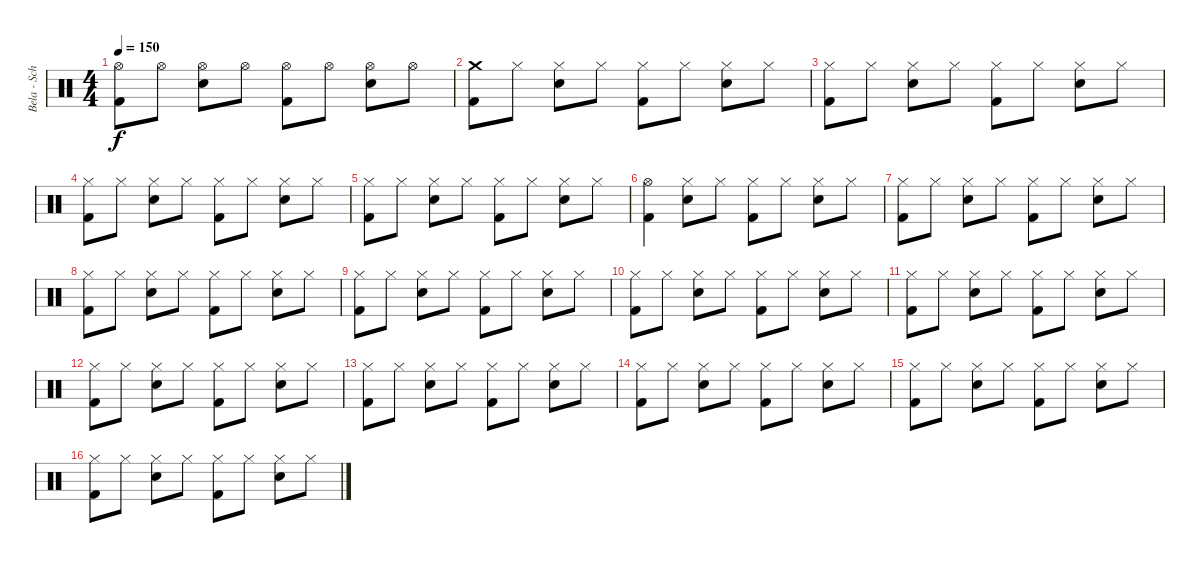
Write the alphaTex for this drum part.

\track ("Bela - Schlagzeug" "Bela - Sch") {instrument percussion}
\staff {score}
\articulation defaults
\ts (4 4)
\tempo 150
\clef neutral
\ks c
("Hi-Hat (open)" "Kick (hit) 2").8{dy f} "Hi-Hat (open)".8 ("Hi-Hat (open)" "Snare (hit) 2").8 "Hi-Hat (open)".8 ("Hi-Hat (open)" "Kick (hit) 2").8 "Hi-Hat (open)".8 ("Hi-Hat (open)" "Snare (hit) 2").8 "Hi-Hat (open)".8 |
("Crash medium (hit)" "Kick (hit) 2").8 "Hi-Hat (closed)".8 ("Hi-Hat (closed)" "Snare (hit) 2").8 "Hi-Hat (closed)".8 ("Hi-Hat (closed)" "Kick (hit) 2").8 "Hi-Hat (closed)".8 ("Hi-Hat (closed)" "Snare (hit) 2").8 "Hi-Hat (closed)".8 |
("Hi-Hat (closed)" "Kick (hit) 2").8 "Hi-Hat (closed)".8 ("Hi-Hat (closed)" "Snare (hit) 2").8 "Hi-Hat (closed)".8 ("Hi-Hat (closed)" "Kick (hit) 2").8 "Hi-Hat (closed)".8 ("Hi-Hat (closed)" "Snare (hit) 2").8 "Hi-Hat (closed)".8 |
("Hi-Hat (closed)" "Kick (hit) 2").8 "Hi-Hat (closed)".8 ("Hi-Hat (closed)" "Snare (hit) 2").8 "Hi-Hat (closed)".8 ("Hi-Hat (closed)" "Kick (hit) 2").8 "Hi-Hat (closed)".8 ("Hi-Hat (closed)" "Snare (hit) 2").8 "Hi-Hat (closed)".8 |
("Hi-Hat (closed)" "Kick (hit) 2").8 "Hi-Hat (closed)".8 ("Hi-Hat (closed)" "Snare (hit) 2").8 "Hi-Hat (closed)".8 ("Hi-Hat (closed)" "Kick (hit) 2").8 "Hi-Hat (closed)".8 ("Hi-Hat (closed)" "Snare (hit) 2").8 "Hi-Hat (closed)".8 |
("Hi-Hat (open)" "Kick (hit) 2").4 ("Hi-Hat (closed)" "Snare (hit) 2").8 "Hi-Hat (closed)".8 ("Hi-Hat (closed)" "Kick (hit) 2").8 "Hi-Hat (closed)".8 ("Hi-Hat (closed)" "Snare (hit) 2").8 "Hi-Hat (closed)".8 |
("Hi-Hat (closed)" "Kick (hit) 2").8 "Hi-Hat (closed)".8 ("Hi-Hat (closed)" "Snare (hit) 2").8 "Hi-Hat (closed)".8 ("Hi-Hat (closed)" "Kick (hit) 2").8 "Hi-Hat (closed)".8 ("Hi-Hat (closed)" "Snare (hit) 2").8 "Hi-Hat (closed)".8 |
("Hi-Hat (closed)" "Kick (hit) 2").8 "Hi-Hat (closed)".8 ("Hi-Hat (closed)" "Snare (hit) 2").8 "Hi-Hat (closed)".8 ("Hi-Hat (closed)" "Kick (hit) 2").8 "Hi-Hat (closed)".8 ("Hi-Hat (closed)" "Snare (hit) 2").8 "Hi-Hat (closed)".8 |
("Hi-Hat (closed)" "Kick (hit) 2").8 "Hi-Hat (closed)".8 ("Hi-Hat (closed)" "Snare (hit) 2").8 "Hi-Hat (closed)".8 ("Hi-Hat (closed)" "Kick (hit) 2").8 "Hi-Hat (closed)".8 ("Hi-Hat (closed)" "Snare (hit) 2").8 "Hi-Hat (closed)".8 |
("Hi-Hat (closed)" "Kick (hit) 2").8 "Hi-Hat (closed)".8 ("Hi-Hat (closed)" "Snare (hit) 2").8 "Hi-Hat (closed)".8 ("Hi-Hat (closed)" "Kick (hit) 2").8 "Hi-Hat (closed)".8 ("Hi-Hat (closed)" "Snare (hit) 2").8 "Hi-Hat (closed)".8 |
("Hi-Hat (closed)" "Kick (hit) 2").8 "Hi-Hat (closed)".8 ("Hi-Hat (closed)" "Snare (hit) 2").8 "Hi-Hat (closed)".8 ("Hi-Hat (closed)" "Kick (hit) 2").8 "Hi-Hat (closed)".8 ("Hi-Hat (closed)" "Snare (hit) 2").8 "Hi-Hat (closed)".8 |
("Hi-Hat (closed)" "Kick (hit) 2").8 "Hi-Hat (closed)".8 ("Hi-Hat (closed)" "Snare (hit) 2").8 "Hi-Hat (closed)".8 ("Hi-Hat (closed)" "Kick (hit) 2").8 "Hi-Hat (closed)".8 ("Hi-Hat (closed)" "Snare (hit) 2").8 "Hi-Hat (closed)".8 |
("Hi-Hat (closed)" "Kick (hit) 2").8 "Hi-Hat (closed)".8 ("Hi-Hat (closed)" "Snare (hit) 2").8 "Hi-Hat (closed)".8 ("Hi-Hat (closed)" "Kick (hit) 2").8 "Hi-Hat (closed)".8 ("Hi-Hat (closed)" "Snare (hit) 2").8 "Hi-Hat (closed)".8 |
("Hi-Hat (closed)" "Kick (hit) 2").8 "Hi-Hat (closed)".8 ("Hi-Hat (closed)" "Snare (hit) 2").8 "Hi-Hat (closed)".8 ("Hi-Hat (closed)" "Kick (hit) 2").8 "Hi-Hat (closed)".8 ("Hi-Hat (closed)" "Snare (hit) 2").8 "Hi-Hat (closed)".8 |
("Hi-Hat (closed)" "Kick (hit) 2").8 "Hi-Hat (closed)".8 ("Hi-Hat (closed)" "Snare (hit) 2").8 "Hi-Hat (closed)".8 ("Hi-Hat (closed)" "Kick (hit) 2").8 "Hi-Hat (closed)".8 ("Hi-Hat (closed)" "Snare (hit) 2").8 "Hi-Hat (closed)".8 |
("Hi-Hat (closed)" "Kick (hit) 2").8 "Hi-Hat (closed)".8 ("Hi-Hat (closed)" "Snare (hit) 2").8 "Hi-Hat (closed)".8 ("Hi-Hat (closed)" "Kick (hit) 2").8 "Hi-Hat (closed)".8 ("Hi-Hat (closed)" "Snare (hit) 2").8 "Hi-Hat (closed)".8
